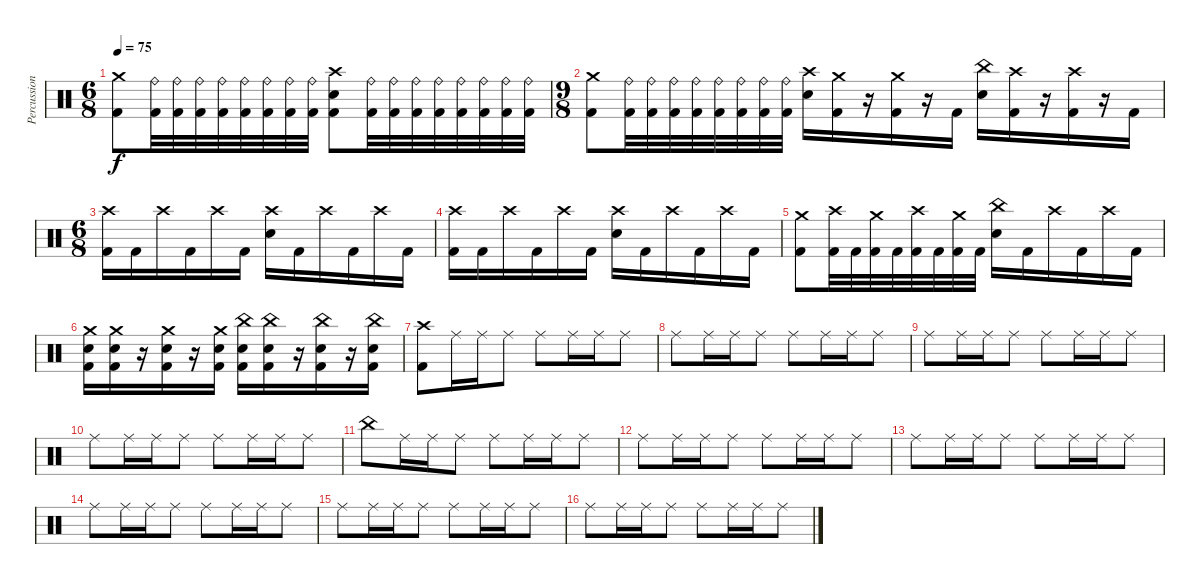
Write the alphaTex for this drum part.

\track ("Percussions" "Percussion") {instrument percussion}
\staff {score}
\articulation defaults
\ts (6 8)
\tempo 75
\clef neutral
\ks c
("Crash medium (hit)" "Kick (hit) 2").8{dy f} ("Ride (bell)" "Kick (hit) 2").32 ("Ride (bell)" "Kick (hit) 2").32 ("Ride (bell)" "Kick (hit) 2").32 ("Ride (bell)" "Kick (hit) 2").32 ("Ride (bell)" "Kick (hit) 2").32 ("Ride (bell)" "Kick (hit) 2").32 ("Ride (bell)" "Kick (hit) 2").32 ("Ride (bell)" "Kick (hit) 2").32 ("Crash high (hit)" "Electric Snare (hit)" "Kick (hit) 2").8 ("Ride (bell)" "Kick (hit) 2").32 ("Ride (bell)" "Kick (hit) 2").32 ("Ride (bell)" "Kick (hit) 2").32 ("Ride (bell)" "Kick (hit) 2").32 ("Ride (bell)" "Kick (hit) 2").32 ("Ride (bell)" "Kick (hit) 2").32 ("Ride (bell)" "Kick (hit) 2").32 ("Ride (bell)" "Kick (hit) 2").32 |
\ts (9 8)
("Crash medium (hit)" "Kick (hit) 2").8 ("Ride (bell)" "Kick (hit) 2").32 ("Ride (bell)" "Kick (hit) 2").32 ("Ride (bell)" "Kick (hit) 2").32 ("Ride (bell)" "Kick (hit) 2").32 ("Ride (bell)" "Kick (hit) 2").32 ("Ride (bell)" "Kick (hit) 2").32 ("Ride (bell)" "Kick (hit) 2").32 ("Ride (bell)" "Kick (hit) 2").32 ("Crash high (hit)" "Electric Snare (hit)").16 ("Crash medium (hit)" "Kick (hit) 2").16 r.16 ("Crash medium (hit)" "Kick (hit) 2").16 r.16 "Kick (hit) 2".16 ("China (hit)" "Electric Snare (hit)").16 ("Crash high (hit)" "Kick (hit) 2").16 r.16 ("Crash high (hit)" "Kick (hit) 2").16 r.16 "Kick (hit) 2".16 |
\ts (6 8)
("Crash high (hit)" "Kick (hit) 2").16 "Kick (hit) 2".16 "Crash high (hit)".16 "Kick (hit) 2".16 "Crash high (hit)".16 "Kick (hit) 2".16 ("Crash high (hit)" "Electric Snare (hit)").16 "Kick (hit) 2".16 "Crash high (hit)".16 "Kick (hit) 2".16 "Crash high (hit)".16 "Kick (hit) 2".16 |
("Crash high (hit)" "Kick (hit) 2").16 "Kick (hit) 2".16 "Crash high (hit)".16 "Kick (hit) 2".16 "Crash high (hit)".16 "Kick (hit) 2".16 ("Crash high (hit)" "Electric Snare (hit)").16 "Kick (hit) 2".16 "Crash high (hit)".16 "Kick (hit) 2".16 "Crash high (hit)".16 "Kick (hit) 2".16 |
("Crash medium (hit)" "Kick (hit) 2").8 ("Crash high (hit)" "Kick (hit) 2").32 "Kick (hit) 2".32 ("Crash medium (hit)" "Kick (hit) 2").32 "Kick (hit) 2".32 ("Crash high (hit)" "Kick (hit) 2").32 "Kick (hit) 2".32 ("Crash medium (hit)" "Kick (hit) 2").32 "Kick (hit) 2".32 ("China (hit)" "Electric Snare (hit)").16 "Kick (hit) 2".16 "Crash high (hit)".16 "Kick (hit) 2".16 "Crash high (hit)".16 "Kick (hit) 2".16 |
("Crash medium (hit)" "Electric Snare (hit)" "Kick (hit) 2").16 ("Crash medium (hit)" "Electric Snare (hit)" "Kick (hit) 2").16 r.16 ("Crash medium (hit)" "Electric Snare (hit)" "Kick (hit) 2").16 r.16 ("Crash medium (hit)" "Electric Snare (hit)" "Kick (hit) 2").16 ("China (hit)" "Electric Snare (hit)" "Kick (hit) 2").16 ("China (hit)" "Electric Snare (hit)" "Kick (hit) 2").16 r.16 ("China (hit)" "Electric Snare (hit)" "Kick (hit) 2").16 r.16 ("China (hit)" "Electric Snare (hit)" "Kick (hit) 2").16 |
("Crash high (hit)" "Kick (hit) 2").8 "Ride (middle)".16 "Ride (middle)".16 "Ride (middle)".8 "Ride (middle)".8 "Ride (middle)".16 "Ride (middle)".16 "Ride (middle)".8 |
"Ride (middle)".8 "Ride (middle)".16 "Ride (middle)".16 "Ride (middle)".8 "Ride (middle)".8 "Ride (middle)".16 "Ride (middle)".16 "Ride (middle)".8 |
"Ride (middle)".8 "Ride (middle)".16 "Ride (middle)".16 "Ride (middle)".8 "Ride (middle)".8 "Ride (middle)".16 "Ride (middle)".16 "Ride (middle)".8 |
"Ride (middle)".8 "Ride (middle)".16 "Ride (middle)".16 "Ride (middle)".8 "Ride (middle)".8 "Ride (middle)".16 "Ride (middle)".16 "Ride (middle)".8 |
"China (hit)".8 "Ride (middle)".16 "Ride (middle)".16 "Ride (middle)".8 "Ride (middle)".8 "Ride (middle)".16 "Ride (middle)".16 "Ride (middle)".8 |
"Ride (middle)".8 "Ride (middle)".16 "Ride (middle)".16 "Ride (middle)".8 "Ride (middle)".8 "Ride (middle)".16 "Ride (middle)".16 "Ride (middle)".8 |
"Ride (middle)".8 "Ride (middle)".16 "Ride (middle)".16 "Ride (middle)".8 "Ride (middle)".8 "Ride (middle)".16 "Ride (middle)".16 "Ride (middle)".8 |
"Ride (middle)".8 "Ride (middle)".16 "Ride (middle)".16 "Ride (middle)".8 "Ride (middle)".8 "Ride (middle)".16 "Ride (middle)".16 "Ride (middle)".8 |
"Ride (middle)".8 "Ride (middle)".16 "Ride (middle)".16 "Ride (middle)".8 "Ride (middle)".8 "Ride (middle)".16 "Ride (middle)".16 "Ride (middle)".8 |
"Ride (middle)".8 "Ride (middle)".16 "Ride (middle)".16 "Ride (middle)".8 "Ride (middle)".8 "Ride (middle)".16 "Ride (middle)".16 "Ride (middle)".8
